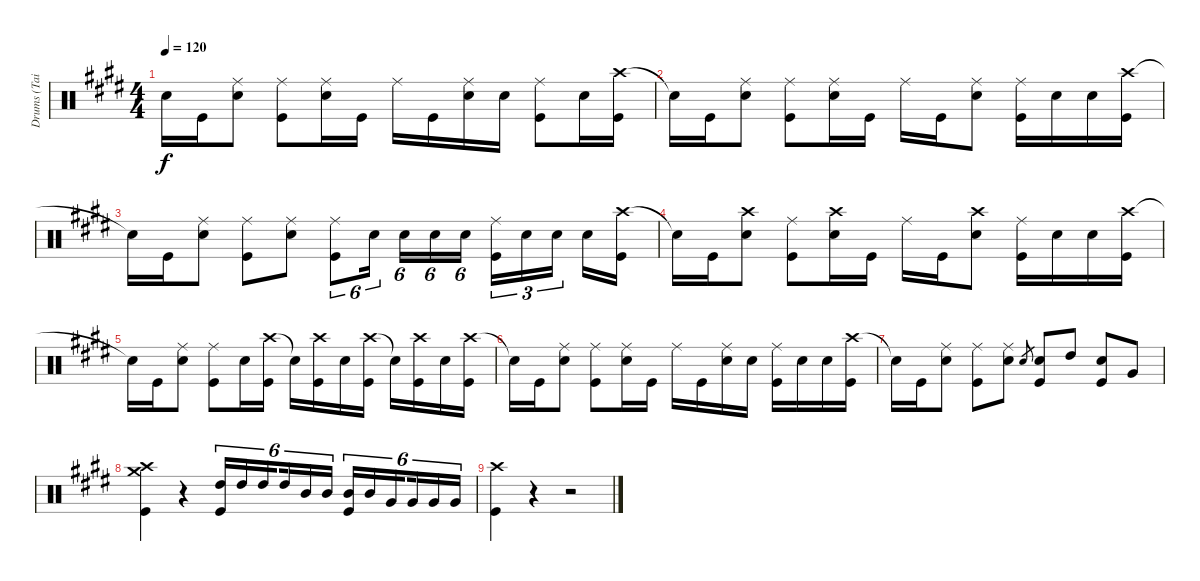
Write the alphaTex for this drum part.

\track ("Drums (Tainaka Ritsu)" "Drums (Tai") {instrument percussion}
\staff {score}
\articulation defaults
\ts (4 4)
\tempo 120
\clef neutral
\ks e "Snare (hit)"{t}.16{dy f} "Kick (hit)".16
("Ride (middle)" "Snare (hit) 2").8 ("Ride (middle)" "Kick (hit)").8 ("Ride (middle)" "Snare (hit) 2").16 "Kick (hit)".16 "Ride (middle)".16 "Kick (hit)".16 ("Ride (middle)" "Snare (hit) 2").16 "Snare (hit) 2".16 ("Ride (middle)" "Kick (hit)").8 "Snare (hit) 2".16 ("Crash high (hit)" "Kick (hit)").16 |
"Snare (hit)"{t}.16 "Kick (hit)".16 ("Ride (middle)" "Snare (hit) 2").8 ("Ride (middle)" "Kick (hit)").8 ("Ride (middle)" "Snare (hit) 2").16 "Kick (hit)".16 "Ride (middle)".16 "Kick (hit)".16 ("Ride (middle)" "Snare (hit) 2").8 ("Ride (middle)" "Kick (hit)").16 "Snare (hit) 2".16 "Snare (hit) 2".16 ("Crash high (hit)" "Kick (hit)").16 |
"Snare (hit)"{t}.16 "Kick (hit)".16 ("Ride (middle)" "Snare (hit) 2").8 ("Ride (middle)" "Kick (hit)").8 ("Ride (middle)" "Snare (hit) 2").8 ("Ride (middle)" "Kick (hit)").8{tu (6 4)} "Snare (hit) 2".16{tu (6 4) beam splitsecondary} "Snare (hit) 2".16{tu (6 4)} "Snare (hit) 2".16{tu (6 4)} "Snare (hit) 2".16{tu (6 4)} ("Ride (middle)" "Kick (hit)").16{tu (3 2)} "Snare (hit) 2".16{tu (3 2)} "Snare (hit) 2".16{tu (3 2) beam splitsecondary} "Snare (hit) 2".16 ("Crash high (hit)" "Kick (hit)").16 |
"Snare (hit)"{t}.16 "Kick (hit)".16 ("Crash high (hit)" "Snare (hit) 2").8 ("Ride (middle)" "Kick (hit)").8 ("Crash high (hit)" "Snare (hit) 2").16 "Kick (hit)".16 "Ride (middle)".16 "Kick (hit)".16 ("Crash high (hit)" "Snare (hit) 2").8 ("Ride (middle)" "Kick (hit)").16 "Snare (hit) 2".16 "Snare (hit) 2".16 ("Crash high (hit)" "Kick (hit)").16 |
"Snare (hit)"{t}.16 "Kick (hit)".16 ("Ride (middle)" "Snare (hit) 2").8 ("Ride (middle)" "Kick (hit)").8 "Snare (hit) 2".16 ("Crash high (hit)" "Kick (hit)").16 "Snare (hit)"{t}.16 ("Crash high (hit)" "Kick (hit)").16 "Snare (hit) 2".16 ("Crash high (hit)" "Kick (hit)").16 "Snare (hit)"{t}.16 ("Crash high (hit)" "Kick (hit)").16 "Snare (hit) 2".16 ("Crash high (hit)" "Kick (hit)").16 |
"Snare (hit)"{t}.16 "Kick (hit)".16 ("Ride (middle)" "Snare (hit) 2").8 ("Ride (middle)" "Kick (hit)").8 ("Ride (middle)" "Snare (hit) 2").16 "Kick (hit)".16 "Ride (middle)".16 "Kick (hit)".16 ("Ride (middle)" "Snare (hit) 2").16 "Snare (hit) 2".16 ("Ride (middle)" "Kick (hit)").16 "Snare (hit) 2".16 "Snare (hit) 2".16 ("Crash high (hit)" "Kick (hit)").16 |
"Snare (hit)"{t}.16 "Kick (hit)".16 ("Ride (middle)" "Snare (hit) 2").8 ("Ride (middle)" "Kick (hit)").8 ("Ride (middle)" "Snare (hit) 2").8 "Snare (hit) 2".8{gr} ("Snare (hit) 2" "Kick (hit)").8 "High Tom (hit)".8 ("Snare (hit) 2" "Kick (hit)").8 "Very Low Tom (hit)".8 |
("Crash high (hit)" "Crash medium (hit)" "Kick (hit)").4 r.4 ("High Tom (hit)" "Kick (hit)").16{tu (6 4)} "High Tom (hit)".16{tu (6 4)} "High Tom (hit)".16{tu (6 4) beam splitsecondary} "High Tom (hit)".16{tu (6 4)} "Mid Tom (hit)".16{tu (6 4)} "Mid Tom (hit)".16{tu (6 4)} ("Mid Tom (hit)" "Kick (hit)").16{tu (6 4)} "Mid Tom (hit)".16{tu (6 4)} "Very Low Tom (hit)".16{tu (6 4) beam splitsecondary} "Very Low Tom (hit)".16{tu (6 4)} "Very Low Tom (hit)".16{tu (6 4)} "Very Low Tom (hit)".16{tu (6 4)} |
("Crash high (hit)" "Kick (hit)").4 r.4 r.2
